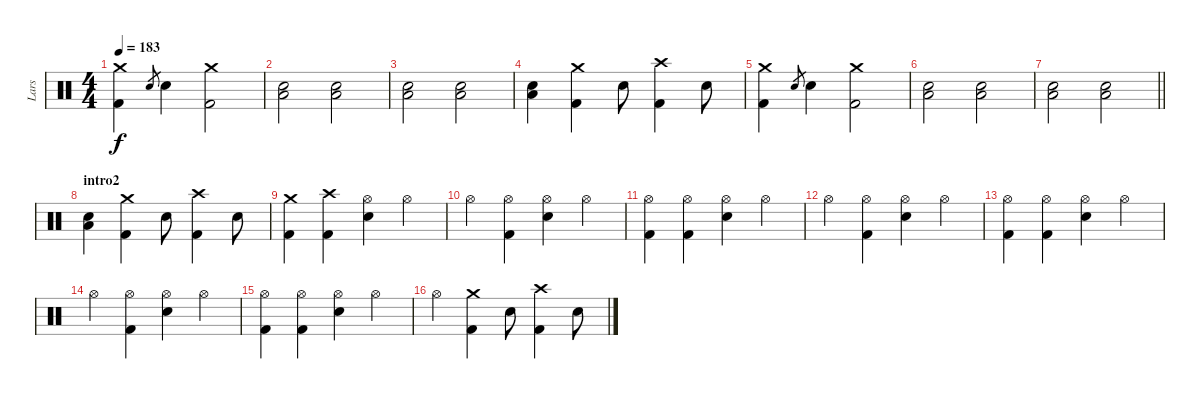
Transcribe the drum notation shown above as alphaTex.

\track ("Lars" "Lars") {instrument percussion}
\staff {score}
\articulation defaults
\ts (4 4)
\tempo 183
\clef neutral
\ks c
("Crash medium (hit)" "Kick (hit) 2").4{dy f} "Snare (hit) 2".8{gr} "Snare (hit) 2".4 ("Crash medium (hit)" "Kick (hit) 2").2 |
("Snare (hit) 2" "Low Floor Tom (hit)").2 ("Snare (hit) 2" "Low Floor Tom (hit)").2 |
("Snare (hit) 2" "Low Floor Tom (hit)").2 ("Snare (hit) 2" "Low Floor Tom (hit)").2 |
("Snare (hit) 2" "Low Floor Tom (hit)").4 ("Crash medium (hit)" "Kick (hit) 2").4 "Snare (hit) 2".8 ("Crash high (hit)" "Kick (hit) 2").4 "Snare (hit) 2".8 |
("Crash medium (hit)" "Kick (hit) 2").4 "Snare (hit) 2".8{gr} "Snare (hit) 2".4 ("Crash medium (hit)" "Kick (hit) 2").2 |
("Snare (hit) 2" "Low Floor Tom (hit)").2 ("Snare (hit) 2" "Low Floor Tom (hit)").2 |
\barLineRight lightlight
("Snare (hit) 2" "Low Floor Tom (hit)").2 ("Snare (hit) 2" "Low Floor Tom (hit)").2 |
\section ("" "intro2")
("Snare (hit) 2" "Low Floor Tom (hit)").4 ("Crash medium (hit)" "Kick (hit) 2").4 "Snare (hit) 2".8 ("Crash high (hit)" "Kick (hit) 2").4 "Snare (hit) 2".8 |
("Crash medium (hit)" "Kick (hit) 2").4 ("Crash high (hit)" "Kick (hit) 2").4 ("Hi-Hat (open)" "Snare (hit) 2").4 "Hi-Hat (open)".4 |
"Hi-Hat (open)".4 ("Hi-Hat (open)" "Kick (hit) 2").4 ("Hi-Hat (open)" "Snare (hit) 2").4 "Hi-Hat (open)".4 |
("Hi-Hat (open)" "Kick (hit) 2").4 ("Hi-Hat (open)" "Kick (hit) 2").4 ("Hi-Hat (open)" "Snare (hit) 2").4 "Hi-Hat (open)".4 |
"Hi-Hat (open)".4 ("Hi-Hat (open)" "Kick (hit) 2").4 ("Hi-Hat (open)" "Snare (hit) 2").4 "Hi-Hat (open)".4 |
("Hi-Hat (open)" "Kick (hit) 2").4 ("Hi-Hat (open)" "Kick (hit) 2").4 ("Hi-Hat (open)" "Snare (hit) 2").4 "Hi-Hat (open)".4 |
"Hi-Hat (open)".4 ("Hi-Hat (open)" "Kick (hit) 2").4 ("Hi-Hat (open)" "Snare (hit) 2").4 "Hi-Hat (open)".4 |
("Hi-Hat (open)" "Kick (hit) 2").4 ("Hi-Hat (open)" "Kick (hit) 2").4 ("Hi-Hat (open)" "Snare (hit) 2").4 "Hi-Hat (open)".4 |
"Hi-Hat (open)".4 ("Crash medium (hit)" "Kick (hit) 2").4 "Snare (hit) 2".8 ("Crash high (hit)" "Kick (hit) 2").4 "Snare (hit) 2".8
